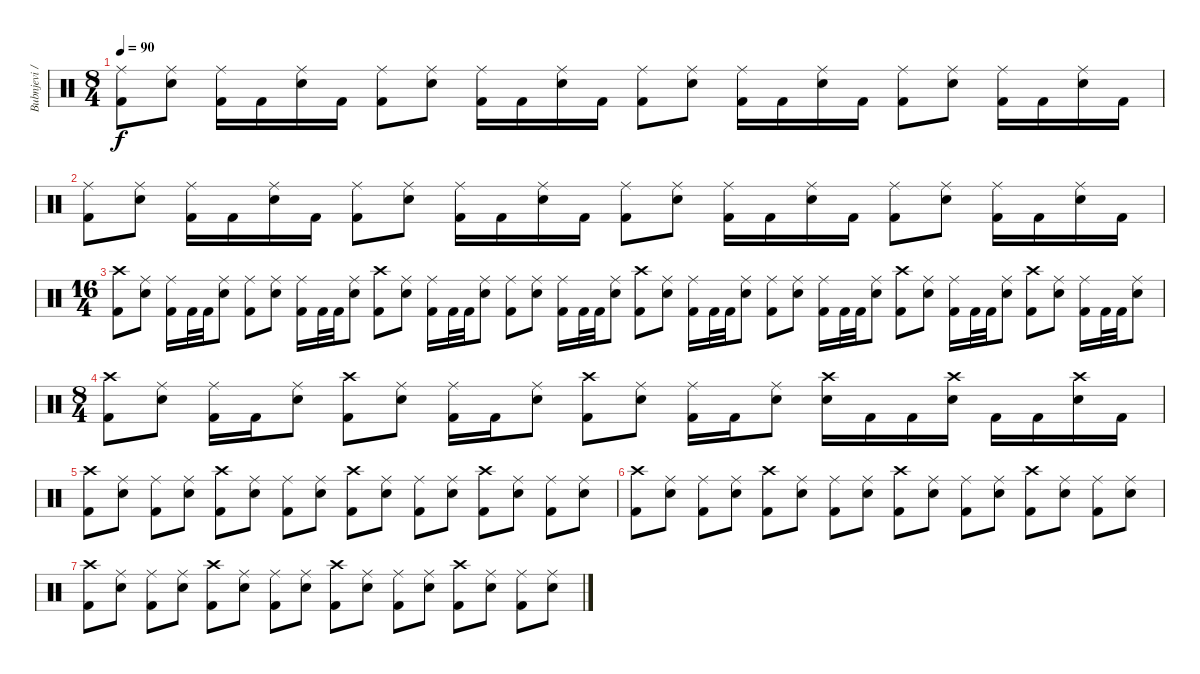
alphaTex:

\track ("Bubnjevi / Drums" "Bubnjevi /") {instrument percussion}
\staff {score}
\articulation defaults
\ts (8 4)
\tempo 90
\clef neutral
\ks c
("Kick (hit) 2" "Ride (middle)").8{dy f} ("Snare (hit) 2" "Ride (middle)").8 ("Kick (hit) 2" "Ride (middle)").16 "Kick (hit) 2".16 ("Snare (hit) 2" "Ride (middle)").16 "Kick (hit) 2".16 ("Kick (hit) 2" "Ride (middle)").8 ("Snare (hit) 2" "Ride (middle)").8 ("Kick (hit) 2" "Ride (middle)").16 "Kick (hit) 2".16 ("Snare (hit) 2" "Ride (middle)").16 "Kick (hit) 2".16 ("Kick (hit) 2" "Ride (middle)").8 ("Snare (hit) 2" "Ride (middle)").8 ("Kick (hit) 2" "Ride (middle)").16 "Kick (hit) 2".16 ("Snare (hit) 2" "Ride (middle)").16 "Kick (hit) 2".16 ("Kick (hit) 2" "Ride (middle)").8 ("Snare (hit) 2" "Ride (middle)").8 ("Kick (hit) 2" "Ride (middle)").16 "Kick (hit) 2".16 ("Snare (hit) 2" "Ride (middle)").16 "Kick (hit) 2".16 |
("Kick (hit) 2" "Ride (middle)").8 ("Snare (hit) 2" "Ride (middle)").8 ("Kick (hit) 2" "Ride (middle)").16 "Kick (hit) 2".16 ("Snare (hit) 2" "Ride (middle)").16 "Kick (hit) 2".16 ("Kick (hit) 2" "Ride (middle)").8 ("Snare (hit) 2" "Ride (middle)").8 ("Kick (hit) 2" "Ride (middle)").16 "Kick (hit) 2".16 ("Snare (hit) 2" "Ride (middle)").16 "Kick (hit) 2".16 ("Kick (hit) 2" "Ride (middle)").8 ("Snare (hit) 2" "Ride (middle)").8 ("Kick (hit) 2" "Ride (middle)").16 "Kick (hit) 2".16 ("Snare (hit) 2" "Ride (middle)").16 "Kick (hit) 2".16 ("Kick (hit) 2" "Ride (middle)").8 ("Snare (hit) 2" "Ride (middle)").8 ("Kick (hit) 2" "Ride (middle)").16 "Kick (hit) 2".16 ("Snare (hit) 2" "Ride (middle)").16 "Kick (hit) 2".16 |
\ts (16 4)
("Kick (hit) 2" "Crash high (hit)").8 ("Snare (hit) 2" "Ride (middle)").8 ("Kick (hit) 2" "Ride (middle)").16 "Kick (hit) 2".32 "Kick (hit) 2".32 ("Snare (hit) 2" "Ride (middle)").8 ("Kick (hit) 2" "Ride (middle)").8 ("Snare (hit) 2" "Ride (middle)").8 ("Kick (hit) 2" "Ride (middle)").16 "Kick (hit) 2".32 "Kick (hit) 2".32 ("Snare (hit) 2" "Ride (middle)").8 ("Kick (hit) 2" "Crash high (hit)").8 ("Snare (hit) 2" "Ride (middle)").8 ("Kick (hit) 2" "Ride (middle)").16 "Kick (hit) 2".32 "Kick (hit) 2".32 ("Snare (hit) 2" "Ride (middle)").8 ("Kick (hit) 2" "Ride (middle)").8 ("Snare (hit) 2" "Ride (middle)").8 ("Kick (hit) 2" "Ride (middle)").16 "Kick (hit) 2".32 "Kick (hit) 2".32 ("Snare (hit) 2" "Ride (middle)").8 ("Kick (hit) 2" "Crash high (hit)").8 ("Snare (hit) 2" "Ride (middle)").8 ("Kick (hit) 2" "Ride (middle)").16 "Kick (hit) 2".32 "Kick (hit) 2".32 ("Snare (hit) 2" "Ride (middle)").8 ("Kick (hit) 2" "Ride (middle)").8 ("Snare (hit) 2" "Ride (middle)").8 ("Kick (hit) 2" "Ride (middle)").16 "Kick (hit) 2".32 "Kick (hit) 2".32 ("Snare (hit) 2" "Ride (middle)").8 ("Kick (hit) 2" "Crash high (hit)").8 ("Snare (hit) 2" "Ride (middle)").8 ("Kick (hit) 2" "Ride (middle)").16 "Kick (hit) 2".32 "Kick (hit) 2".32 ("Snare (hit) 2" "Ride (middle)").8 ("Kick (hit) 2" "Crash high (hit)").8 ("Snare (hit) 2" "Ride (middle)").8 ("Kick (hit) 2" "Ride (middle)").16 "Kick (hit) 2".32 "Kick (hit) 2".32 ("Snare (hit) 2" "Ride (middle)").8 |
\ts (8 4)
("Kick (hit) 2" "Crash high (hit)").8 ("Snare (hit) 2" "Ride (middle)").8 ("Kick (hit) 2" "Ride (middle)").16 "Kick (hit) 2".16 ("Snare (hit) 2" "Ride (middle)").8 ("Kick (hit) 2" "Crash high (hit)").8 ("Snare (hit) 2" "Ride (middle)").8 ("Kick (hit) 2" "Ride (middle)").16 "Kick (hit) 2".16 ("Snare (hit) 2" "Ride (middle)").8 ("Kick (hit) 2" "Crash high (hit)").8 ("Snare (hit) 2" "Ride (middle)").8 ("Kick (hit) 2" "Ride (middle)").16 "Kick (hit) 2".16 ("Snare (hit) 2" "Ride (middle)").8 ("Snare (hit) 2" "Crash high (hit)").16 "Kick (hit) 2".16 "Kick (hit) 2".16 ("Snare (hit) 2" "Crash high (hit)").16 "Kick (hit) 2".16 "Kick (hit) 2".16 ("Snare (hit) 2" "Crash high (hit)").16 "Kick (hit) 2".16 |
("Kick (hit) 2" "Crash high (hit)").8 ("Snare (hit) 2" "Ride (middle)").8 ("Kick (hit) 2" "Ride (middle)").8 ("Snare (hit) 2" "Ride (middle)").8 ("Kick (hit) 2" "Crash high (hit)").8 ("Snare (hit) 2" "Ride (middle)").8 ("Kick (hit) 2" "Ride (middle)").8 ("Snare (hit) 2" "Ride (middle)").8 ("Kick (hit) 2" "Crash high (hit)").8 ("Snare (hit) 2" "Ride (middle)").8 ("Kick (hit) 2" "Ride (middle)").8 ("Snare (hit) 2" "Ride (middle)").8 ("Kick (hit) 2" "Crash high (hit)").8 ("Snare (hit) 2" "Ride (middle)").8 ("Kick (hit) 2" "Ride (middle)").8 ("Snare (hit) 2" "Ride (middle)").8 |
("Kick (hit) 2" "Crash high (hit)").8 ("Snare (hit) 2" "Ride (middle)").8 ("Kick (hit) 2" "Ride (middle)").8 ("Snare (hit) 2" "Ride (middle)").8 ("Kick (hit) 2" "Crash high (hit)").8 ("Snare (hit) 2" "Ride (middle)").8 ("Kick (hit) 2" "Ride (middle)").8 ("Snare (hit) 2" "Ride (middle)").8 ("Kick (hit) 2" "Crash high (hit)").8 ("Snare (hit) 2" "Ride (middle)").8 ("Kick (hit) 2" "Ride (middle)").8 ("Snare (hit) 2" "Ride (middle)").8 ("Kick (hit) 2" "Crash high (hit)").8 ("Snare (hit) 2" "Ride (middle)").8 ("Kick (hit) 2" "Ride (middle)").8 ("Snare (hit) 2" "Ride (middle)").8 |
("Kick (hit) 2" "Crash high (hit)").8 ("Snare (hit) 2" "Ride (middle)").8 ("Kick (hit) 2" "Ride (middle)").8 ("Snare (hit) 2" "Ride (middle)").8 ("Kick (hit) 2" "Crash high (hit)").8 ("Snare (hit) 2" "Ride (middle)").8 ("Kick (hit) 2" "Ride (middle)").8 ("Snare (hit) 2" "Ride (middle)").8 ("Kick (hit) 2" "Crash high (hit)").8 ("Snare (hit) 2" "Ride (middle)").8 ("Kick (hit) 2" "Ride (middle)").8 ("Snare (hit) 2" "Ride (middle)").8 ("Kick (hit) 2" "Crash high (hit)").8 ("Snare (hit) 2" "Ride (middle)").8 ("Kick (hit) 2" "Ride (middle)").8 ("Snare (hit) 2" "Ride (middle)").8
